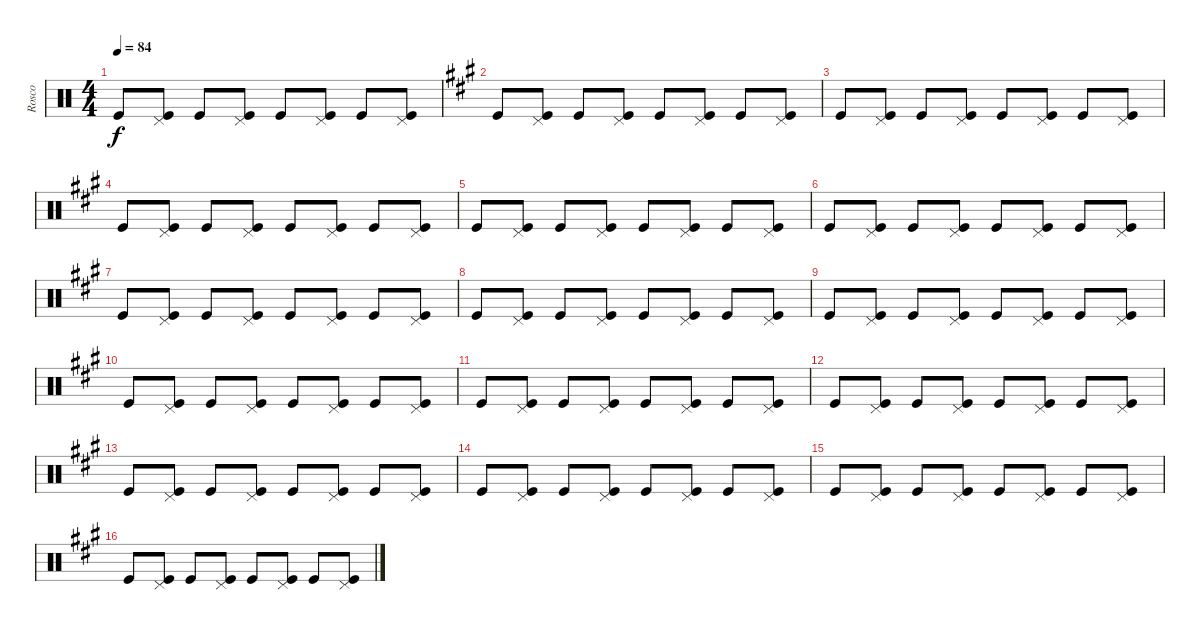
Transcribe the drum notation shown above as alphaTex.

\track ("Rosco" "Rosco") {instrument percussion}
\staff {score}
\articulation defaults
\ts (4 4)
\tempo 84
\clef neutral
\ks c "Kick (hit)".8{dy f}
("Pedal Hi-Hat (hit)" "Kick (hit)").8 "Kick (hit)".8 ("Pedal Hi-Hat (hit)" "Kick (hit)").8 "Kick (hit)".8 ("Pedal Hi-Hat (hit)" "Kick (hit)").8 "Kick (hit)".8 ("Pedal Hi-Hat (hit)" "Kick (hit)").8 |
\ks a "Kick (hit)".8
("Pedal Hi-Hat (hit)" "Kick (hit)").8 "Kick (hit)".8 ("Pedal Hi-Hat (hit)" "Kick (hit)").8 "Kick (hit)".8 ("Pedal Hi-Hat (hit)" "Kick (hit)").8 "Kick (hit)".8 ("Pedal Hi-Hat (hit)" "Kick (hit)").8 |
"Kick (hit)".8 ("Pedal Hi-Hat (hit)" "Kick (hit)").8 "Kick (hit)".8 ("Pedal Hi-Hat (hit)" "Kick (hit)").8 "Kick (hit)".8 ("Pedal Hi-Hat (hit)" "Kick (hit)").8 "Kick (hit)".8 ("Pedal Hi-Hat (hit)" "Kick (hit)").8 |
"Kick (hit)".8 ("Pedal Hi-Hat (hit)" "Kick (hit)").8 "Kick (hit)".8 ("Pedal Hi-Hat (hit)" "Kick (hit)").8 "Kick (hit)".8 ("Pedal Hi-Hat (hit)" "Kick (hit)").8 "Kick (hit)".8 ("Pedal Hi-Hat (hit)" "Kick (hit)").8 |
"Kick (hit)".8 ("Pedal Hi-Hat (hit)" "Kick (hit)").8 "Kick (hit)".8 ("Pedal Hi-Hat (hit)" "Kick (hit)").8 "Kick (hit)".8 ("Pedal Hi-Hat (hit)" "Kick (hit)").8 "Kick (hit)".8 ("Pedal Hi-Hat (hit)" "Kick (hit)").8 |
"Kick (hit)".8 ("Pedal Hi-Hat (hit)" "Kick (hit)").8 "Kick (hit)".8 ("Pedal Hi-Hat (hit)" "Kick (hit)").8 "Kick (hit)".8 ("Pedal Hi-Hat (hit)" "Kick (hit)").8 "Kick (hit)".8 ("Pedal Hi-Hat (hit)" "Kick (hit)").8 |
"Kick (hit)".8 ("Pedal Hi-Hat (hit)" "Kick (hit)").8 "Kick (hit)".8 ("Pedal Hi-Hat (hit)" "Kick (hit)").8 "Kick (hit)".8 ("Pedal Hi-Hat (hit)" "Kick (hit)").8 "Kick (hit)".8 ("Pedal Hi-Hat (hit)" "Kick (hit)").8 |
"Kick (hit)".8 ("Pedal Hi-Hat (hit)" "Kick (hit)").8 "Kick (hit)".8 ("Pedal Hi-Hat (hit)" "Kick (hit)").8 "Kick (hit)".8 ("Pedal Hi-Hat (hit)" "Kick (hit)").8 "Kick (hit)".8 ("Pedal Hi-Hat (hit)" "Kick (hit)").8 |
"Kick (hit)".8 ("Pedal Hi-Hat (hit)" "Kick (hit)").8 "Kick (hit)".8 ("Pedal Hi-Hat (hit)" "Kick (hit)").8 "Kick (hit)".8 ("Pedal Hi-Hat (hit)" "Kick (hit)").8 "Kick (hit)".8 ("Pedal Hi-Hat (hit)" "Kick (hit)").8 |
"Kick (hit)".8 ("Pedal Hi-Hat (hit)" "Kick (hit)").8 "Kick (hit)".8 ("Pedal Hi-Hat (hit)" "Kick (hit)").8 "Kick (hit)".8 ("Pedal Hi-Hat (hit)" "Kick (hit)").8 "Kick (hit)".8 ("Pedal Hi-Hat (hit)" "Kick (hit)").8 |
"Kick (hit)".8 ("Pedal Hi-Hat (hit)" "Kick (hit)").8 "Kick (hit)".8 ("Pedal Hi-Hat (hit)" "Kick (hit)").8 "Kick (hit)".8 ("Pedal Hi-Hat (hit)" "Kick (hit)").8 "Kick (hit)".8 ("Pedal Hi-Hat (hit)" "Kick (hit)").8 |
"Kick (hit)".8 ("Pedal Hi-Hat (hit)" "Kick (hit)").8 "Kick (hit)".8 ("Pedal Hi-Hat (hit)" "Kick (hit)").8 "Kick (hit)".8 ("Pedal Hi-Hat (hit)" "Kick (hit)").8 "Kick (hit)".8 ("Pedal Hi-Hat (hit)" "Kick (hit)").8 |
"Kick (hit)".8 ("Pedal Hi-Hat (hit)" "Kick (hit)").8 "Kick (hit)".8 ("Pedal Hi-Hat (hit)" "Kick (hit)").8 "Kick (hit)".8 ("Pedal Hi-Hat (hit)" "Kick (hit)").8 "Kick (hit)".8 ("Pedal Hi-Hat (hit)" "Kick (hit)").8 |
"Kick (hit)".8 ("Pedal Hi-Hat (hit)" "Kick (hit)").8 "Kick (hit)".8 ("Pedal Hi-Hat (hit)" "Kick (hit)").8 "Kick (hit)".8 ("Pedal Hi-Hat (hit)" "Kick (hit)").8 "Kick (hit)".8 ("Pedal Hi-Hat (hit)" "Kick (hit)").8 |
"Kick (hit)".8 ("Pedal Hi-Hat (hit)" "Kick (hit)").8 "Kick (hit)".8 ("Pedal Hi-Hat (hit)" "Kick (hit)").8 "Kick (hit)".8 ("Pedal Hi-Hat (hit)" "Kick (hit)").8 "Kick (hit)".8 ("Pedal Hi-Hat (hit)" "Kick (hit)").8 |
"Kick (hit)".8 ("Pedal Hi-Hat (hit)" "Kick (hit)").8 "Kick (hit)".8 ("Pedal Hi-Hat (hit)" "Kick (hit)").8 "Kick (hit)".8 ("Pedal Hi-Hat (hit)" "Kick (hit)").8 "Kick (hit)".8 ("Pedal Hi-Hat (hit)" "Kick (hit)").8
